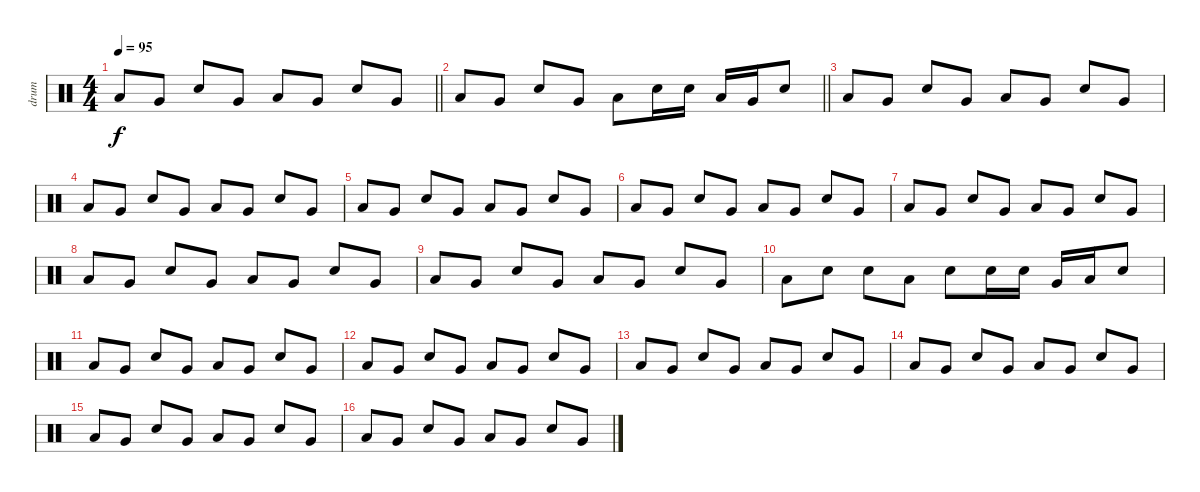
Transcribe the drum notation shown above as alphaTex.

\track ("drum" "drum") {instrument percussion}
\staff {score}
\articulation defaults
\ts (4 4)
\tempo 95
\clef neutral
\barLineRight lightlight
\ks c "Low Floor Tom (hit)".8{dy f} "Very Low Tom (hit)".8 "Snare (hit) 2".8 "Very Low Tom (hit)".8 "Low Floor Tom (hit)".8 "Very Low Tom (hit)".8 "Snare (hit) 2".8 "Very Low Tom (hit)".8
|
\section ("" "")
\barLineRight lightlight "Low Floor Tom (hit)".8 "Very Low Tom (hit)".8 "Snare (hit) 2".8 "Very Low Tom (hit)".8 "Low Floor Tom (hit)".8 "Snare (hit) 2".16 "Electric Snare (hit)".16 "Low Floor Tom (hit)".16 "Very Low Tom (hit)".16 "Snare (hit) 2".8
|
\section ("" "")
"Low Floor Tom (hit)".8 "Very Low Tom (hit)".8 "Snare (hit) 2".8 "Very Low Tom (hit)".8 "Low Floor Tom (hit)".8 "Very Low Tom (hit)".8 "Snare (hit) 2".8 "Very Low Tom (hit)".8 |
"Low Floor Tom (hit)".8 "Very Low Tom (hit)".8 "Snare (hit) 2".8 "Very Low Tom (hit)".8 "Low Floor Tom (hit)".8 "Very Low Tom (hit)".8 "Snare (hit) 2".8 "Very Low Tom (hit)".8 |
"Low Floor Tom (hit)".8 "Very Low Tom (hit)".8 "Snare (hit) 2".8 "Very Low Tom (hit)".8 "Low Floor Tom (hit)".8 "Very Low Tom (hit)".8 "Snare (hit) 2".8 "Very Low Tom (hit)".8 |
"Low Floor Tom (hit)".8 "Very Low Tom (hit)".8 "Snare (hit) 2".8 "Very Low Tom (hit)".8 "Low Floor Tom (hit)".8 "Very Low Tom (hit)".8 "Snare (hit) 2".8 "Very Low Tom (hit)".8 |
"Low Floor Tom (hit)".8 "Very Low Tom (hit)".8 "Snare (hit) 2".8 "Very Low Tom (hit)".8 "Low Floor Tom (hit)".8 "Very Low Tom (hit)".8 "Snare (hit) 2".8 "Very Low Tom (hit)".8 |
"Low Floor Tom (hit)".8 "Very Low Tom (hit)".8 "Snare (hit) 2".8 "Very Low Tom (hit)".8 "Low Floor Tom (hit)".8 "Very Low Tom (hit)".8 "Snare (hit) 2".8 "Very Low Tom (hit)".8 |
"Low Floor Tom (hit)".8 "Very Low Tom (hit)".8 "Snare (hit) 2".8 "Very Low Tom (hit)".8 "Low Floor Tom (hit)".8 "Very Low Tom (hit)".8 "Snare (hit) 2".8 "Very Low Tom (hit)".8 |
"Low Floor Tom (hit)".8 "Snare (hit) 2".8 "Snare (hit) 2".8 "Low Floor Tom (hit)".8 "Snare (hit) 2".8 "Snare (hit) 2".16 "Electric Snare (hit)".16 "Very Low Tom (hit)".16 "Low Floor Tom (hit)".16 "Snare (hit) 2".8 |
"Low Floor Tom (hit)".8 "Very Low Tom (hit)".8 "Snare (hit) 2".8 "Very Low Tom (hit)".8 "Low Floor Tom (hit)".8 "Very Low Tom (hit)".8 "Snare (hit) 2".8 "Very Low Tom (hit)".8 |
"Low Floor Tom (hit)".8 "Very Low Tom (hit)".8 "Snare (hit) 2".8 "Very Low Tom (hit)".8 "Low Floor Tom (hit)".8 "Very Low Tom (hit)".8 "Snare (hit) 2".8 "Very Low Tom (hit)".8 |
"Low Floor Tom (hit)".8 "Very Low Tom (hit)".8 "Snare (hit) 2".8 "Very Low Tom (hit)".8 "Low Floor Tom (hit)".8 "Very Low Tom (hit)".8 "Snare (hit) 2".8 "Very Low Tom (hit)".8 |
"Low Floor Tom (hit)".8 "Very Low Tom (hit)".8 "Snare (hit) 2".8 "Very Low Tom (hit)".8 "Low Floor Tom (hit)".8 "Very Low Tom (hit)".8 "Snare (hit) 2".8 "Very Low Tom (hit)".8 |
"Low Floor Tom (hit)".8 "Very Low Tom (hit)".8 "Snare (hit) 2".8 "Very Low Tom (hit)".8 "Low Floor Tom (hit)".8 "Very Low Tom (hit)".8 "Snare (hit) 2".8 "Very Low Tom (hit)".8 |
"Low Floor Tom (hit)".8 "Very Low Tom (hit)".8 "Snare (hit) 2".8 "Very Low Tom (hit)".8 "Low Floor Tom (hit)".8 "Very Low Tom (hit)".8 "Snare (hit) 2".8 "Very Low Tom (hit)".8
